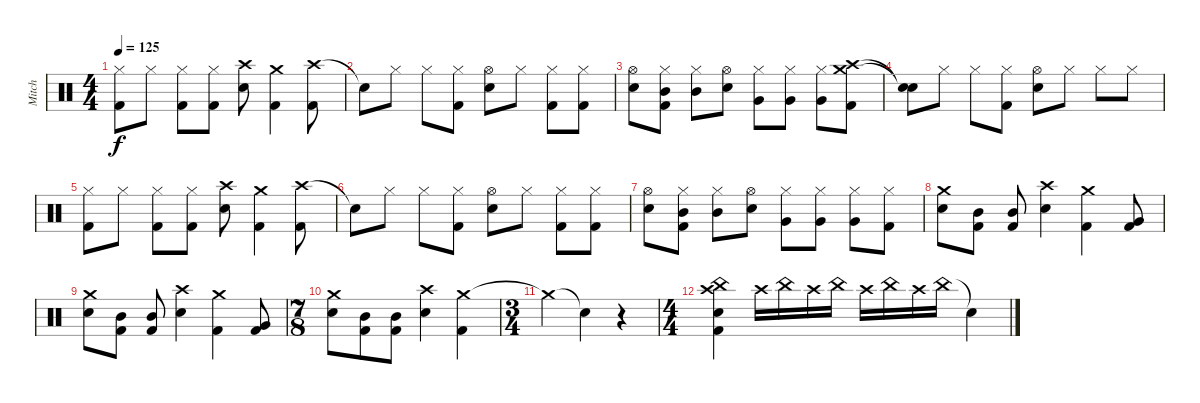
\track ("Mitch" "Mitch") {instrument percussion}
\staff {score}
\articulation defaults
\ts (4 4)
\tempo 125
\clef neutral
\ks c
("Kick (hit) 2" "Hi-Hat (closed)").8{dy f} "Hi-Hat (closed)".8 ("Kick (hit) 2" "Hi-Hat (closed)").8 ("Kick (hit) 2" "Hi-Hat (closed)").8 ("Crash high (hit)" "Snare (hit) 2").8 ("Crash medium (hit)" "Kick (hit) 2").4 ("Crash high (hit)" "Kick (hit) 2").8 |
"Snare (hit)"{t}.8 "Hi-Hat (closed)".8 "Hi-Hat (closed)".8 ("Kick (hit) 2" "Hi-Hat (closed)").8 ("Snare (hit) 2" "Hi-Hat (open)").8 "Hi-Hat (closed)".8 ("Kick (hit) 2" "Hi-Hat (closed)").8 ("Kick (hit) 2" "Hi-Hat (closed)").8 |
("Snare (hit) 2" "Hi-Hat (open)").8 ("Mid Tom (hit)" "Kick (hit) 2" "Hi-Hat (closed)").8 ("Mid Tom (hit)" "Hi-Hat (closed)").8 ("Snare (hit) 2" "Hi-Hat (open)").8 ("Very Low Tom (hit)" "Hi-Hat (closed)").8 ("Very Low Tom (hit)" "Hi-Hat (closed)").8 ("Very Low Tom (hit)" "Hi-Hat (closed)").8 ("Crash high (hit)" "Crash medium (hit)" "Kick (hit) 2").8 |
("Snare (hit)"{t} "Snare (hit)"{t}).8 "Hi-Hat (closed)".8 "Hi-Hat (closed)".8 ("Kick (hit) 2" "Hi-Hat (closed)").8 ("Snare (hit) 2" "Hi-Hat (open)").8 "Hi-Hat (closed)".8 "Hi-Hat (closed)".8 "Hi-Hat (closed)".8 |
("Kick (hit) 2" "Hi-Hat (closed)").8 "Hi-Hat (closed)".8 ("Kick (hit) 2" "Hi-Hat (closed)").8 ("Kick (hit) 2" "Hi-Hat (closed)").8 ("Crash high (hit)" "Snare (hit) 2").8 ("Crash medium (hit)" "Kick (hit) 2").4 ("Crash high (hit)" "Kick (hit) 2").8 |
"Snare (hit)"{t}.8 "Hi-Hat (closed)".8 "Hi-Hat (closed)".8 ("Kick (hit) 2" "Hi-Hat (closed)").8 ("Snare (hit) 2" "Hi-Hat (open)").8 "Hi-Hat (closed)".8 ("Kick (hit) 2" "Hi-Hat (closed)").8 ("Kick (hit) 2" "Hi-Hat (closed)").8 |
("Snare (hit) 2" "Hi-Hat (open)").8 ("Mid Tom (hit)" "Kick (hit) 2" "Hi-Hat (closed)").8 ("Mid Tom (hit)" "Hi-Hat (closed)").8 ("Snare (hit) 2" "Hi-Hat (open)").8 ("Very Low Tom (hit)" "Hi-Hat (closed)").8 ("Very Low Tom (hit)" "Hi-Hat (closed)").8 ("Very Low Tom (hit)" "Hi-Hat (closed)").8 ("Kick (hit) 2" "Hi-Hat (closed)").8 |
("Crash medium (hit)" "Snare (hit) 2").8 ("Mid Tom (hit)" "Kick (hit) 2").8 ("Mid Tom (hit)" "Kick (hit) 2").8 ("Crash high (hit)" "Snare (hit) 2").4 ("Crash medium (hit)" "Kick (hit) 2").4 ("Very Low Tom (hit)" "Kick (hit) 2").8 |
("Crash medium (hit)" "Snare (hit) 2").8 ("Mid Tom (hit)" "Kick (hit) 2").8 ("Mid Tom (hit)" "Kick (hit) 2").8 ("Crash high (hit)" "Snare (hit) 2").4 ("Crash medium (hit)" "Kick (hit) 2").4 ("Very Low Tom (hit)" "Kick (hit) 2").8 |
\ts (7 8)
("Crash medium (hit)" "Snare (hit) 2").8 ("Mid Tom (hit)" "Kick (hit) 2").8 ("Mid Tom (hit)" "Kick (hit) 2").8 ("Crash high (hit)" "Snare (hit) 2").4 ("Crash medium (hit)" "Kick (hit) 2").4 |
\ts (3 4)
"Crash medium (hit)"{t}.4 "Snare (hit)"{t}.4 r.4 |
\ts (4 4)
("Crash high (hit)" "China (hit)" "Snare (hit) 2" "Kick (hit) 2").4 "Crash high (hit)".16 "China (hit)".16 "Crash high (hit)".16 "China (hit)".16 "Crash high (hit)".16 "China (hit)".16 "Crash high (hit)".16 "China (hit)".16 "Snare (hit)"{t}.4
